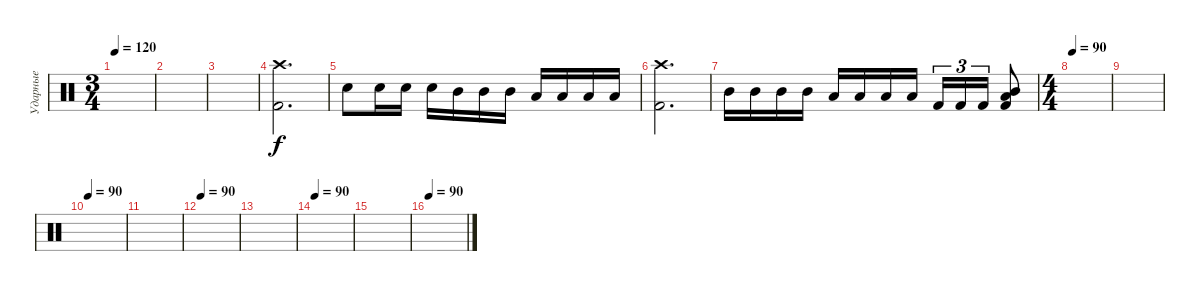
\track ("Ударные" "Ударные") {instrument percussion}
\staff {score}
\articulation defaults
\ts (3 4)
\tempo 120
\clef neutral
\ks c
|
|
|
("Kick (hit) 2" "Crash high (hit)").2{d} |
"Electric Snare (hit)".8 "Electric Snare (hit)".16 "Electric Snare (hit)".16 "Electric Snare (hit)".16 "Mid Tom (hit)".16 "Mid Tom (hit)".16 "Mid Tom (hit)".16 "Low Tom (hit)".16 "Low Tom (hit)".16 "Low Tom (hit)".16 "Low Tom (hit)".16 |
("Kick (hit) 2" "Crash high (hit)").2{d} |
"Mid Tom (hit)".16 "Mid Tom (hit)".16 "Mid Tom (hit)".16 "Mid Tom (hit)".16 "Low Tom (hit)".16 "Low Tom (hit)".16 "Low Tom (hit)".16 "Low Tom (hit)".16 "Kick (hit) 2".16{tu (3 2)} "Kick (hit) 2".16{tu (3 2)} "Kick (hit) 2".16{tu (3 2)} ("Kick (hit) 2" "Mid Tom (hit)" "Low Tom (hit)").8 |
\ts (4 4)
\tempo 90
|
|
\tempo 90
|
|
\tempo 90
|
|
\tempo 90
|
|
\tempo 90
